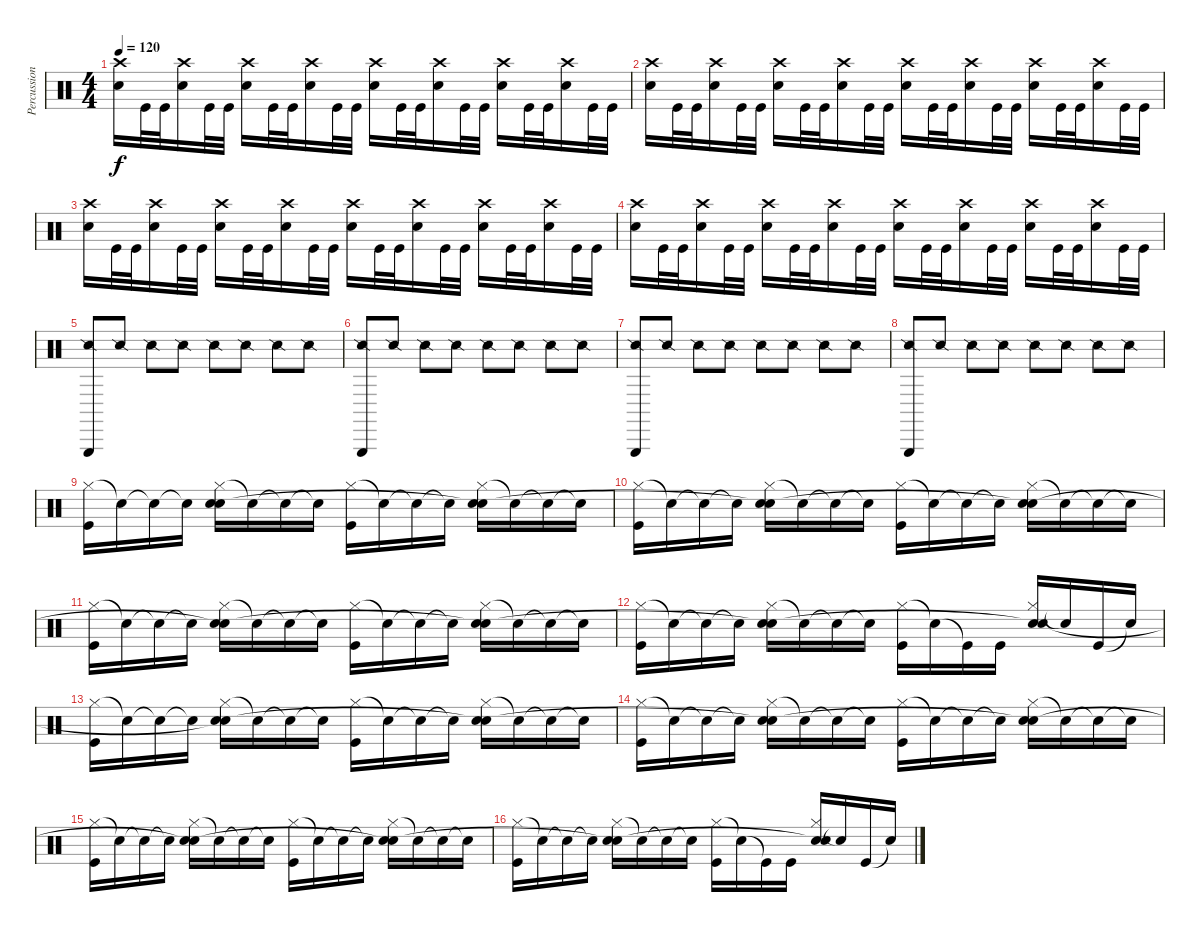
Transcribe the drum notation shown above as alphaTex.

\track ("Percussion" "Percussion") {instrument percussion}
\staff {score}
\articulation defaults
\ts (4 4)
\tempo 120
\clef neutral
\ks c
("Crash high (hit)" "Electric Snare (hit)").16{dy f} "Kick (hit)".32 "Kick (hit)".32 ("Crash high (hit)" "Electric Snare (hit)").16 "Kick (hit)".32 "Kick (hit)".32 ("Crash high (hit)" "Electric Snare (hit)").16 "Kick (hit)".32 "Kick (hit)".32 ("Crash high (hit)" "Electric Snare (hit)").16 "Kick (hit)".32 "Kick (hit)".32 ("Crash high (hit)" "Electric Snare (hit)").16 "Kick (hit)".32 "Kick (hit)".32 ("Crash high (hit)" "Electric Snare (hit)").16 "Kick (hit)".32 "Kick (hit)".32 ("Crash high (hit)" "Electric Snare (hit)").16 "Kick (hit)".32 "Kick (hit)".32 ("Crash high (hit)" "Electric Snare (hit)").16 "Kick (hit)".32 "Kick (hit)".32 |
("Crash high (hit)" "Electric Snare (hit)").16 "Kick (hit)".32 "Kick (hit)".32 ("Crash high (hit)" "Electric Snare (hit)").16 "Kick (hit)".32 "Kick (hit)".32 ("Crash high (hit)" "Electric Snare (hit)").16 "Kick (hit)".32 "Kick (hit)".32 ("Crash high (hit)" "Electric Snare (hit)").16 "Kick (hit)".32 "Kick (hit)".32 ("Crash high (hit)" "Electric Snare (hit)").16 "Kick (hit)".32 "Kick (hit)".32 ("Crash high (hit)" "Electric Snare (hit)").16 "Kick (hit)".32 "Kick (hit)".32 ("Crash high (hit)" "Electric Snare (hit)").16 "Kick (hit)".32 "Kick (hit)".32 ("Crash high (hit)" "Electric Snare (hit)").16 "Kick (hit)".32 "Kick (hit)".32 |
("Crash high (hit)" "Electric Snare (hit)").16 "Kick (hit)".32 "Kick (hit)".32 ("Crash high (hit)" "Electric Snare (hit)").16 "Kick (hit)".32 "Kick (hit)".32 ("Crash high (hit)" "Electric Snare (hit)").16 "Kick (hit)".32 "Kick (hit)".32 ("Crash high (hit)" "Electric Snare (hit)").16 "Kick (hit)".32 "Kick (hit)".32 ("Crash high (hit)" "Electric Snare (hit)").16 "Kick (hit)".32 "Kick (hit)".32 ("Crash high (hit)" "Electric Snare (hit)").16 "Kick (hit)".32 "Kick (hit)".32 ("Crash high (hit)" "Electric Snare (hit)").16 "Kick (hit)".32 "Kick (hit)".32 ("Crash high (hit)" "Electric Snare (hit)").16 "Kick (hit)".32 "Kick (hit)".32 |
("Crash high (hit)" "Electric Snare (hit)").16 "Kick (hit)".32 "Kick (hit)".32 ("Crash high (hit)" "Electric Snare (hit)").16 "Kick (hit)".32 "Kick (hit)".32 ("Crash high (hit)" "Electric Snare (hit)").16 "Kick (hit)".32 "Kick (hit)".32 ("Crash high (hit)" "Electric Snare (hit)").16 "Kick (hit)".32 "Kick (hit)".32 ("Crash high (hit)" "Electric Snare (hit)").16 "Kick (hit)".32 "Kick (hit)".32 ("Crash high (hit)" "Electric Snare (hit)").16 "Kick (hit)".32 "Kick (hit)".32 ("Crash high (hit)" "Electric Snare (hit)").16 "Kick (hit)".32 "Kick (hit)".32 ("Crash high (hit)" "Electric Snare (hit)").16 "Kick (hit)".32 "Kick (hit)".32 |
("Triangle (hit)" "Snare (side stick) 2").8 "Snare (side stick) 2".8 "Snare (side stick) 2".8 "Snare (side stick) 2".8 "Snare (side stick) 2".8 "Snare (side stick) 2".8 "Snare (side stick) 2".8 "Snare (side stick) 2".8 |
("Triangle (hit)" "Snare (side stick) 2").8 "Snare (side stick) 2".8 "Snare (side stick) 2".8 "Snare (side stick) 2".8 "Snare (side stick) 2".8 "Snare (side stick) 2".8 "Snare (side stick) 2".8 "Snare (side stick) 2".8 |
("Triangle (hit)" "Snare (side stick) 2").8 "Snare (side stick) 2".8 "Snare (side stick) 2".8 "Snare (side stick) 2".8 "Snare (side stick) 2".8 "Snare (side stick) 2".8 "Snare (side stick) 2".8 "Snare (side stick) 2".8 |
("Triangle (hit)" "Snare (side stick) 2").8 "Snare (side stick) 2".8 "Snare (side stick) 2".8 "Snare (side stick) 2".8 "Snare (side stick) 2".8 "Snare (side stick) 2".8 "Snare (side stick) 2".8 "Snare (side stick) 2".8 |
("Hi-Hat (closed)" "Kick (hit)").16 "Snare (hit)"{t}.16 "Snare (hit)"{t}.16 "Snare (hit)"{t}.16 ("Hi-Hat (closed)" "Electric Snare (hit)" "Snare (hit)").16 "Snare (hit)"{t}.16 "Snare (hit)"{t}.16 "Snare (hit)"{t}.16 ("Hi-Hat (closed)" "Kick (hit)").16 "Snare (hit)"{t}.16 "Snare (hit)"{t}.16 "Snare (hit)"{t}.16 ("Hi-Hat (closed)" "Electric Snare (hit)" "Snare (hit)"{t}).16 "Snare (hit)"{t}.16 "Snare (hit)"{t}.16 "Snare (hit)"{t}.16 |
("Hi-Hat (closed)" "Kick (hit)").16 "Snare (hit)"{t}.16 "Snare (hit)"{t}.16 "Snare (hit)"{t}.16 ("Hi-Hat (closed)" "Electric Snare (hit)" "Snare (hit)"{t}).16 "Snare (hit)"{t}.16 "Snare (hit)"{t}.16 "Snare (hit)"{t}.16 ("Hi-Hat (closed)" "Kick (hit)").16 "Snare (hit)"{t}.16 "Snare (hit)"{t}.16 "Snare (hit)"{t}.16 ("Hi-Hat (closed)" "Electric Snare (hit)" "Snare (hit)"{t}).16 "Snare (hit)"{t}.16 "Snare (hit)"{t}.16 "Snare (hit)"{t}.16 |
("Hi-Hat (closed)" "Kick (hit)").16 "Snare (hit)"{t}.16 "Snare (hit)"{t}.16 "Snare (hit)"{t}.16 ("Hi-Hat (closed)" "Electric Snare (hit)" "Snare (hit)"{t}).16 "Snare (hit)"{t}.16 "Snare (hit)"{t}.16 "Snare (hit)"{t}.16 ("Hi-Hat (closed)" "Kick (hit)").16 "Snare (hit)"{t}.16 "Snare (hit)"{t}.16 "Snare (hit)"{t}.16 ("Hi-Hat (closed)" "Electric Snare (hit)" "Snare (hit)"{t}).16 "Snare (hit)"{t}.16 "Snare (hit)"{t}.16 "Snare (hit)"{t}.16 |
("Hi-Hat (closed)" "Kick (hit)").16 "Snare (hit)"{t}.16 "Snare (hit)"{t}.16 "Snare (hit)"{t}.16 ("Hi-Hat (closed)" "Electric Snare (hit)" "Snare (hit)"{t}).16 "Snare (hit)"{t}.16 "Snare (hit)"{t}.16 "Snare (hit)"{t}.16 ("Hi-Hat (closed)" "Kick (hit)").16 "Snare (hit)"{t}.16 "Kick (hit)"{t}.16 "Kick (hit)".16 ("Hi-Hat (closed)" "Electric Snare (hit)" "Snare (hit)"{t}).16 "Snare (hit)"{t}.16 "Kick (hit)".16 "Snare (hit)"{t}.16 |
("Hi-Hat (closed)" "Kick (hit)").16 "Snare (hit)"{t}.16 "Snare (hit)"{t}.16 "Snare (hit)"{t}.16 ("Hi-Hat (closed)" "Electric Snare (hit)" "Snare (hit)"{t}).16 "Snare (hit)"{t}.16 "Snare (hit)"{t}.16 "Snare (hit)"{t}.16 ("Hi-Hat (closed)" "Kick (hit)").16 "Snare (hit)"{t}.16 "Snare (hit)"{t}.16 "Snare (hit)"{t}.16 ("Hi-Hat (closed)" "Electric Snare (hit)" "Snare (hit)"{t}).16 "Snare (hit)"{t}.16 "Snare (hit)"{t}.16 "Snare (hit)"{t}.16 |
("Hi-Hat (closed)" "Kick (hit)").16 "Snare (hit)"{t}.16 "Snare (hit)"{t}.16 "Snare (hit)"{t}.16 ("Hi-Hat (closed)" "Electric Snare (hit)" "Snare (hit)"{t}).16 "Snare (hit)"{t}.16 "Snare (hit)"{t}.16 "Snare (hit)"{t}.16 ("Hi-Hat (closed)" "Kick (hit)").16 "Snare (hit)"{t}.16 "Snare (hit)"{t}.16 "Snare (hit)"{t}.16 ("Hi-Hat (closed)" "Electric Snare (hit)" "Snare (hit)"{t}).16 "Snare (hit)"{t}.16 "Snare (hit)"{t}.16 "Snare (hit)"{t}.16 |
("Hi-Hat (closed)" "Kick (hit)").16 "Snare (hit)"{t}.16 "Snare (hit)"{t}.16 "Snare (hit)"{t}.16 ("Hi-Hat (closed)" "Electric Snare (hit)" "Snare (hit)"{t}).16 "Snare (hit)"{t}.16 "Snare (hit)"{t}.16 "Snare (hit)"{t}.16 ("Hi-Hat (closed)" "Kick (hit)").16 "Snare (hit)"{t}.16 "Snare (hit)"{t}.16 "Snare (hit)"{t}.16 ("Hi-Hat (closed)" "Electric Snare (hit)" "Snare (hit)"{t}).16 "Snare (hit)"{t}.16 "Snare (hit)"{t}.16 "Snare (hit)"{t}.16 |
("Hi-Hat (closed)" "Kick (hit)").16 "Snare (hit)"{t}.16 "Snare (hit)"{t}.16 "Snare (hit)"{t}.16 ("Hi-Hat (closed)" "Electric Snare (hit)" "Snare (hit)"{t}).16 "Snare (hit)"{t}.16 "Snare (hit)"{t}.16 "Snare (hit)"{t}.16 ("Hi-Hat (closed)" "Kick (hit)").16 "Snare (hit)"{t}.16 "Kick (hit)"{t}.16 "Kick (hit)".16 ("Hi-Hat (closed)" "Electric Snare (hit)" "Snare (hit)"{t}).16 "Snare (hit)"{t}.16 "Kick (hit)".16 "Snare (hit)"{t}.16
